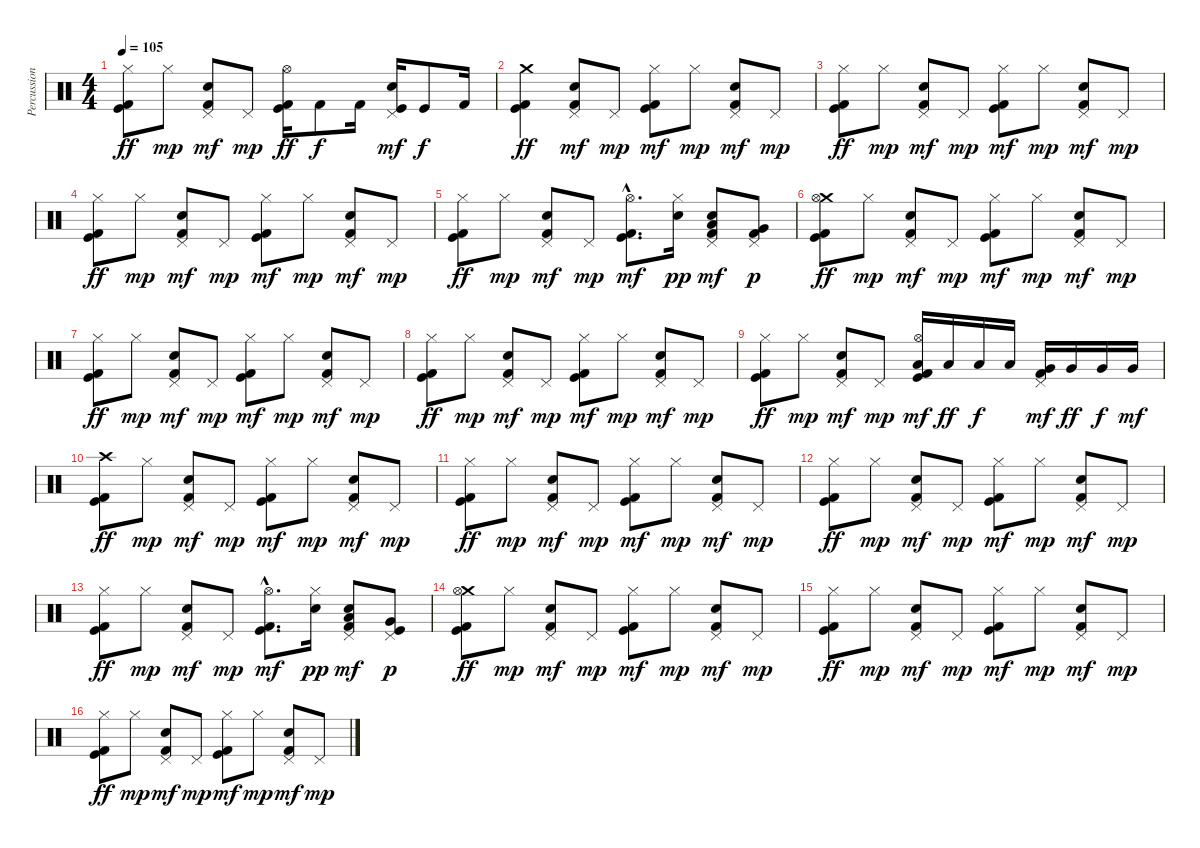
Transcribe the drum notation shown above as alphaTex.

\track ("Percussion" "Percussion") {instrument percussion}
\staff {score}
\articulation defaults
\ts (4 4)
\tempo 105
\clef neutral
\ks c
("Hi-Hat (closed)" "Kick (hit)" "Kick (hit) 2").8{dy ff} "Hi-Hat (closed)".8{dy mp} ("Electric Snare (hit)" "Pedal Hi-Hat (hit)" "Kick (hit) 2").8{dy mf} "Pedal Hi-Hat (hit)".8{dy mp} ("Hi-Hat (open)" "Kick (hit)" "Kick (hit) 2").16{dy ff} "Kick (hit) 2".8{dy f} "Kick (hit) 2".16 ("Electric Snare (hit)" "Pedal Hi-Hat (hit)" "Kick (hit)").16{dy mf} "Kick (hit)".8{dy f} "Kick (hit) 2".16 |
("Crash medium (hit)" "Kick (hit)" "Kick (hit) 2").4{dy ff} ("Electric Snare (hit)" "Pedal Hi-Hat (hit)" "Kick (hit) 2").8{dy mf} "Pedal Hi-Hat (hit)".8{dy mp} ("Hi-Hat (closed)" "Kick (hit)" "Kick (hit) 2").8{dy mf} "Hi-Hat (closed)".8{dy mp} ("Electric Snare (hit)" "Pedal Hi-Hat (hit)" "Kick (hit) 2").8{dy mf} "Pedal Hi-Hat (hit)".8{dy mp} |
("Hi-Hat (closed)" "Kick (hit)" "Kick (hit) 2").8{dy ff} "Hi-Hat (closed)".8{dy mp} ("Electric Snare (hit)" "Pedal Hi-Hat (hit)" "Kick (hit) 2").8{dy mf} "Pedal Hi-Hat (hit)".8{dy mp} ("Hi-Hat (closed)" "Kick (hit)" "Kick (hit) 2").8{dy mf} "Hi-Hat (closed)".8{dy mp} ("Electric Snare (hit)" "Pedal Hi-Hat (hit)" "Kick (hit) 2").8{dy mf} "Pedal Hi-Hat (hit)".8{dy mp} |
("Hi-Hat (closed)" "Kick (hit)" "Kick (hit) 2").8{dy ff} "Hi-Hat (closed)".8{dy mp} ("Electric Snare (hit)" "Pedal Hi-Hat (hit)" "Kick (hit) 2").8{dy mf} "Pedal Hi-Hat (hit)".8{dy mp} ("Hi-Hat (closed)" "Kick (hit)" "Kick (hit) 2").8{dy mf} "Hi-Hat (closed)".8{dy mp} ("Electric Snare (hit)" "Pedal Hi-Hat (hit)" "Kick (hit) 2").8{dy mf} "Pedal Hi-Hat (hit)".8{dy mp} |
("Hi-Hat (closed)" "Kick (hit)" "Kick (hit) 2").8{dy ff} "Hi-Hat (closed)".8{dy mp} ("Electric Snare (hit)" "Pedal Hi-Hat (hit)" "Kick (hit) 2").8{dy mf} "Pedal Hi-Hat (hit)".8{dy mp} ("Hi-Hat (open)"{hac} "Kick (hit)"{hac} "Kick (hit) 2"{hac}).8{d dy mf} ("Electric Snare (hit)" "Hi-Hat (closed)").16{dy pp} ("Electric Snare (hit)" "Pedal Hi-Hat (hit)" "Low Tom (hit)" "Kick (hit) 2").8{dy mf} ("Pedal Hi-Hat (hit)" "Very Low Tom (hit)" "Kick (hit) 2").8{dy p} |
("Crash medium (hit)" "Hi-Hat (open)" "Kick (hit)" "Kick (hit) 2").8{dy ff} "Hi-Hat (closed)".8{dy mp} ("Electric Snare (hit)" "Pedal Hi-Hat (hit)" "Kick (hit) 2").8{dy mf} "Pedal Hi-Hat (hit)".8{dy mp} ("Hi-Hat (closed)" "Kick (hit)" "Kick (hit) 2").8{dy mf} "Hi-Hat (closed)".8{dy mp} ("Electric Snare (hit)" "Pedal Hi-Hat (hit)" "Kick (hit) 2").8{dy mf} "Pedal Hi-Hat (hit)".8{dy mp} |
("Hi-Hat (closed)" "Kick (hit)" "Kick (hit) 2").8{dy ff} "Hi-Hat (closed)".8{dy mp} ("Electric Snare (hit)" "Pedal Hi-Hat (hit)" "Kick (hit) 2").8{dy mf} "Pedal Hi-Hat (hit)".8{dy mp} ("Hi-Hat (closed)" "Kick (hit)" "Kick (hit) 2").8{dy mf} "Hi-Hat (closed)".8{dy mp} ("Electric Snare (hit)" "Pedal Hi-Hat (hit)" "Kick (hit) 2").8{dy mf} "Pedal Hi-Hat (hit)".8{dy mp} |
("Hi-Hat (closed)" "Kick (hit)" "Kick (hit) 2").8{dy ff} "Hi-Hat (closed)".8{dy mp} ("Electric Snare (hit)" "Pedal Hi-Hat (hit)" "Kick (hit) 2").8{dy mf} "Pedal Hi-Hat (hit)".8{dy mp} ("Hi-Hat (closed)" "Kick (hit)" "Kick (hit) 2").8{dy mf} "Hi-Hat (closed)".8{dy mp} ("Electric Snare (hit)" "Pedal Hi-Hat (hit)" "Kick (hit) 2").8{dy mf} "Pedal Hi-Hat (hit)".8{dy mp} |
("Hi-Hat (closed)" "Kick (hit)" "Kick (hit) 2").8{dy ff} "Hi-Hat (closed)".8{dy mp} ("Electric Snare (hit)" "Pedal Hi-Hat (hit)" "Kick (hit) 2").8{dy mf} "Pedal Hi-Hat (hit)".8{dy mp} ("Low Tom (hit)" "Hi-Hat (open)" "Kick (hit)" "Kick (hit) 2").16{dy mf} "Low Tom (hit)".16{dy ff} "Low Tom (hit)".16{dy f} "Low Tom (hit)".16 ("Very Low Tom (hit)" "Pedal Hi-Hat (hit)" "Kick (hit) 2").16{dy mf} "Very Low Tom (hit)".16{dy ff} "Very Low Tom (hit)".16{dy f} "Very Low Tom (hit)".16{dy mf} |
("Crash high (hit)" "Kick (hit)" "Kick (hit) 2").8{dy ff} "Hi-Hat (closed)".8{dy mp} ("Electric Snare (hit)" "Pedal Hi-Hat (hit)" "Kick (hit) 2").8{dy mf} "Pedal Hi-Hat (hit)".8{dy mp} ("Hi-Hat (closed)" "Kick (hit)" "Kick (hit) 2").8{dy mf} "Hi-Hat (closed)".8{dy mp} ("Electric Snare (hit)" "Pedal Hi-Hat (hit)" "Kick (hit) 2").8{dy mf} "Pedal Hi-Hat (hit)".8{dy mp} |
("Hi-Hat (closed)" "Kick (hit)" "Kick (hit) 2").8{dy ff} "Hi-Hat (closed)".8{dy mp} ("Electric Snare (hit)" "Pedal Hi-Hat (hit)" "Kick (hit) 2").8{dy mf} "Pedal Hi-Hat (hit)".8{dy mp} ("Hi-Hat (closed)" "Kick (hit)" "Kick (hit) 2").8{dy mf} "Hi-Hat (closed)".8{dy mp} ("Electric Snare (hit)" "Pedal Hi-Hat (hit)" "Kick (hit) 2").8{dy mf} "Pedal Hi-Hat (hit)".8{dy mp} |
("Hi-Hat (closed)" "Kick (hit)" "Kick (hit) 2").8{dy ff} "Hi-Hat (closed)".8{dy mp} ("Electric Snare (hit)" "Pedal Hi-Hat (hit)" "Kick (hit) 2").8{dy mf} "Pedal Hi-Hat (hit)".8{dy mp} ("Hi-Hat (closed)" "Kick (hit)" "Kick (hit) 2").8{dy mf} "Hi-Hat (closed)".8{dy mp} ("Electric Snare (hit)" "Pedal Hi-Hat (hit)" "Kick (hit) 2").8{dy mf} "Pedal Hi-Hat (hit)".8{dy mp} |
("Hi-Hat (closed)" "Kick (hit)" "Kick (hit) 2").8{dy ff} "Hi-Hat (closed)".8{dy mp} ("Electric Snare (hit)" "Pedal Hi-Hat (hit)" "Kick (hit) 2").8{dy mf} "Pedal Hi-Hat (hit)".8{dy mp} ("Hi-Hat (open)"{hac} "Kick (hit)"{hac} "Kick (hit) 2"{hac}).8{d dy mf} ("Electric Snare (hit)" "Hi-Hat (closed)").16{dy pp} ("Electric Snare (hit)" "Pedal Hi-Hat (hit)" "Low Tom (hit)" "Kick (hit) 2").8{dy mf} ("Pedal Hi-Hat (hit)" "Very Low Tom (hit)" "Kick (hit)").8{dy p} |
("Crash medium (hit)" "Hi-Hat (open)" "Kick (hit)" "Kick (hit) 2").8{dy ff} "Hi-Hat (closed)".8{dy mp} ("Electric Snare (hit)" "Pedal Hi-Hat (hit)" "Kick (hit) 2").8{dy mf} "Pedal Hi-Hat (hit)".8{dy mp} ("Hi-Hat (closed)" "Kick (hit)" "Kick (hit) 2").8{dy mf} "Hi-Hat (closed)".8{dy mp} ("Electric Snare (hit)" "Pedal Hi-Hat (hit)" "Kick (hit) 2").8{dy mf} "Pedal Hi-Hat (hit)".8{dy mp} |
("Hi-Hat (closed)" "Kick (hit)" "Kick (hit) 2").8{dy ff} "Hi-Hat (closed)".8{dy mp} ("Electric Snare (hit)" "Pedal Hi-Hat (hit)" "Kick (hit) 2").8{dy mf} "Pedal Hi-Hat (hit)".8{dy mp} ("Hi-Hat (closed)" "Kick (hit)" "Kick (hit) 2").8{dy mf} "Hi-Hat (closed)".8{dy mp} ("Electric Snare (hit)" "Pedal Hi-Hat (hit)" "Kick (hit) 2").8{dy mf} "Pedal Hi-Hat (hit)".8{dy mp} |
("Hi-Hat (closed)" "Kick (hit)" "Kick (hit) 2").8{dy ff} "Hi-Hat (closed)".8{dy mp} ("Electric Snare (hit)" "Pedal Hi-Hat (hit)" "Kick (hit) 2").8{dy mf} "Pedal Hi-Hat (hit)".8{dy mp} ("Hi-Hat (closed)" "Kick (hit)" "Kick (hit) 2").8{dy mf} "Hi-Hat (closed)".8{dy mp} ("Electric Snare (hit)" "Pedal Hi-Hat (hit)" "Kick (hit) 2").8{dy mf} "Pedal Hi-Hat (hit)".8{dy mp}
